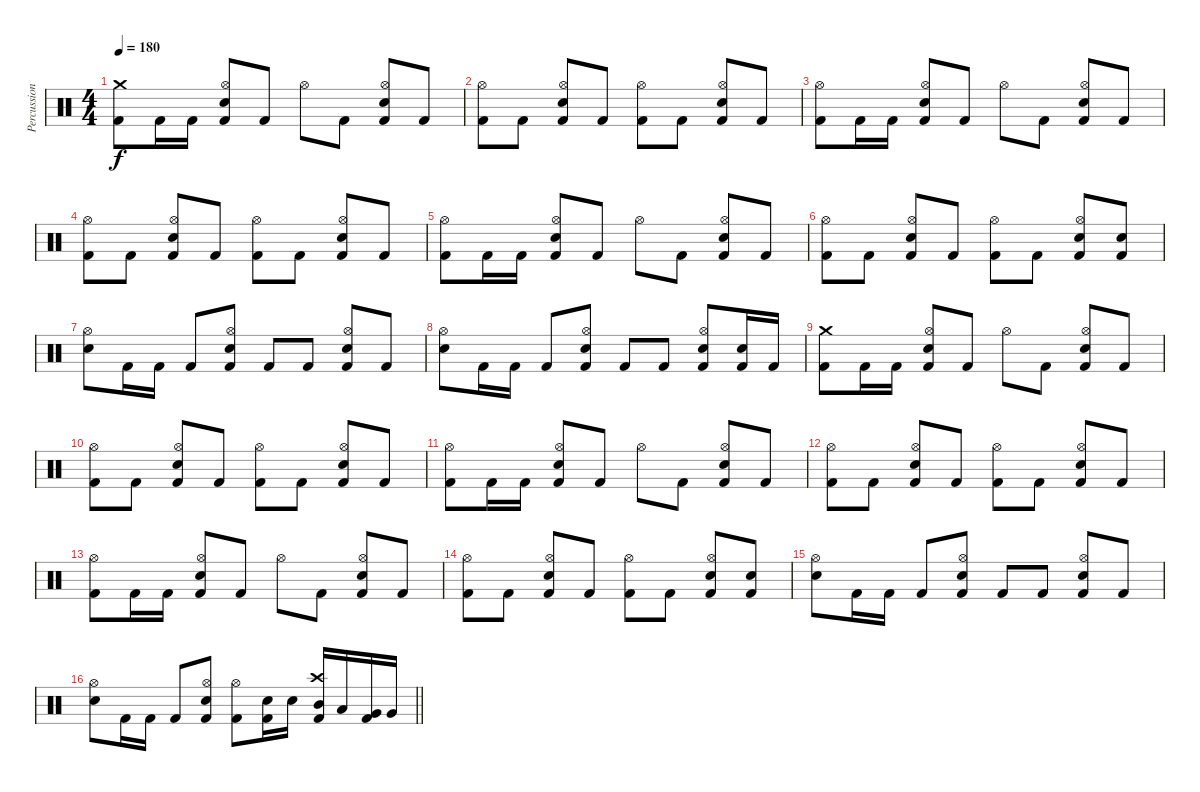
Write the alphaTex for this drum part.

\track ("Percussion" "Percussion") {instrument percussion}
\staff {score}
\articulation defaults
\ts (4 4)
\tempo 180
\clef neutral
\ks c
("Crash medium (hit)" "Kick (hit) 2").8{dy f} "Kick (hit) 2".16 "Kick (hit) 2".16 ("Kick (hit) 2" "Hi-Hat (open)" "Snare (hit) 2").8 "Kick (hit) 2".8 "Hi-Hat (open)".8 "Kick (hit) 2".8 ("Kick (hit) 2" "Hi-Hat (open)" "Snare (hit) 2").8 "Kick (hit) 2".8 |
("Hi-Hat (open)" "Kick (hit) 2").8 "Kick (hit) 2".8 ("Kick (hit) 2" "Hi-Hat (open)" "Snare (hit) 2").8 "Kick (hit) 2".8 ("Hi-Hat (open)" "Kick (hit) 2").8 "Kick (hit) 2".8 ("Kick (hit) 2" "Hi-Hat (open)" "Snare (hit) 2").8 "Kick (hit) 2".8 |
("Hi-Hat (open)" "Kick (hit) 2").8 "Kick (hit) 2".16 "Kick (hit) 2".16 ("Kick (hit) 2" "Hi-Hat (open)" "Snare (hit) 2").8 "Kick (hit) 2".8 "Hi-Hat (open)".8 "Kick (hit) 2".8 ("Kick (hit) 2" "Hi-Hat (open)" "Snare (hit) 2").8 "Kick (hit) 2".8 |
("Hi-Hat (open)" "Kick (hit) 2").8 "Kick (hit) 2".8 ("Kick (hit) 2" "Hi-Hat (open)" "Snare (hit) 2").8 "Kick (hit) 2".8 ("Hi-Hat (open)" "Kick (hit) 2").8 "Kick (hit) 2".8 ("Kick (hit) 2" "Hi-Hat (open)" "Snare (hit) 2").8 "Kick (hit) 2".8 |
("Hi-Hat (open)" "Kick (hit) 2").8 "Kick (hit) 2".16 "Kick (hit) 2".16 ("Kick (hit) 2" "Hi-Hat (open)" "Snare (hit) 2").8 "Kick (hit) 2".8 "Hi-Hat (open)".8 "Kick (hit) 2".8 ("Kick (hit) 2" "Hi-Hat (open)" "Snare (hit) 2").8 "Kick (hit) 2".8 |
("Hi-Hat (open)" "Kick (hit) 2").8 "Kick (hit) 2".8 ("Kick (hit) 2" "Hi-Hat (open)" "Snare (hit) 2").8 "Kick (hit) 2".8 ("Hi-Hat (open)" "Kick (hit) 2").8 "Kick (hit) 2".8 ("Kick (hit) 2" "Hi-Hat (open)" "Snare (hit) 2").8 ("Kick (hit) 2" "Snare (hit) 2").8 |
("Hi-Hat (open)" "Snare (hit) 2").8 "Kick (hit) 2".16 "Kick (hit) 2".16 "Kick (hit) 2".8 ("Kick (hit) 2" "Hi-Hat (open)" "Snare (hit) 2").8 "Kick (hit) 2".8 "Kick (hit) 2".8 ("Kick (hit) 2" "Hi-Hat (open)" "Snare (hit) 2").8 "Kick (hit) 2".8 |
("Hi-Hat (open)" "Snare (hit) 2").8 "Kick (hit) 2".16 "Kick (hit) 2".16 "Kick (hit) 2".8 ("Kick (hit) 2" "Hi-Hat (open)" "Snare (hit) 2").8 "Kick (hit) 2".8 "Kick (hit) 2".8 ("Kick (hit) 2" "Hi-Hat (open)" "Snare (hit) 2").8 ("Kick (hit) 2" "Snare (hit) 2").16 "Kick (hit) 2".16 |
("Crash medium (hit)" "Kick (hit) 2").8 "Kick (hit) 2".16 "Kick (hit) 2".16 ("Kick (hit) 2" "Hi-Hat (open)" "Snare (hit) 2").8 "Kick (hit) 2".8 "Hi-Hat (open)".8 "Kick (hit) 2".8 ("Kick (hit) 2" "Hi-Hat (open)" "Snare (hit) 2").8 "Kick (hit) 2".8 |
("Hi-Hat (open)" "Kick (hit) 2").8 "Kick (hit) 2".8 ("Kick (hit) 2" "Hi-Hat (open)" "Snare (hit) 2").8 "Kick (hit) 2".8 ("Hi-Hat (open)" "Kick (hit) 2").8 "Kick (hit) 2".8 ("Kick (hit) 2" "Hi-Hat (open)" "Snare (hit) 2").8 "Kick (hit) 2".8 |
("Hi-Hat (open)" "Kick (hit) 2").8 "Kick (hit) 2".16 "Kick (hit) 2".16 ("Kick (hit) 2" "Hi-Hat (open)" "Snare (hit) 2").8 "Kick (hit) 2".8 "Hi-Hat (open)".8 "Kick (hit) 2".8 ("Kick (hit) 2" "Hi-Hat (open)" "Snare (hit) 2").8 "Kick (hit) 2".8 |
("Hi-Hat (open)" "Kick (hit) 2").8 "Kick (hit) 2".8 ("Kick (hit) 2" "Hi-Hat (open)" "Snare (hit) 2").8 "Kick (hit) 2".8 ("Hi-Hat (open)" "Kick (hit) 2").8 "Kick (hit) 2".8 ("Kick (hit) 2" "Hi-Hat (open)" "Snare (hit) 2").8 "Kick (hit) 2".8 |
("Hi-Hat (open)" "Kick (hit) 2").8 "Kick (hit) 2".16 "Kick (hit) 2".16 ("Kick (hit) 2" "Hi-Hat (open)" "Snare (hit) 2").8 "Kick (hit) 2".8 "Hi-Hat (open)".8 "Kick (hit) 2".8 ("Kick (hit) 2" "Hi-Hat (open)" "Snare (hit) 2").8 "Kick (hit) 2".8 |
("Hi-Hat (open)" "Kick (hit) 2").8 "Kick (hit) 2".8 ("Kick (hit) 2" "Hi-Hat (open)" "Snare (hit) 2").8 "Kick (hit) 2".8 ("Hi-Hat (open)" "Kick (hit) 2").8 "Kick (hit) 2".8 ("Kick (hit) 2" "Hi-Hat (open)" "Snare (hit) 2").8 ("Kick (hit) 2" "Snare (hit) 2").8 |
("Hi-Hat (open)" "Snare (hit) 2").8 "Kick (hit) 2".16 "Kick (hit) 2".16 "Kick (hit) 2".8 ("Kick (hit) 2" "Hi-Hat (open)" "Snare (hit) 2").8 "Kick (hit) 2".8 "Kick (hit) 2".8 ("Kick (hit) 2" "Hi-Hat (open)" "Snare (hit) 2").8 "Kick (hit) 2".8 |
\barLineRight lightlight
("Hi-Hat (open)" "Snare (hit) 2").8 "Kick (hit) 2".16 "Kick (hit) 2".16 "Kick (hit) 2".8 ("Kick (hit) 2" "Hi-Hat (open)" "Snare (hit) 2").8 ("Hi-Hat (open)" "Kick (hit) 2").8 ("Kick (hit) 2" "Snare (hit) 2").16 "Snare (hit) 2".16 ("Kick (hit) 2" "Crash high (hit)" "Mid Tom (hit)").16 "Low Tom (hit)".16 ("Kick (hit) 2" "Very Low Tom (hit)").16 "Very Low Tom (hit)".16
